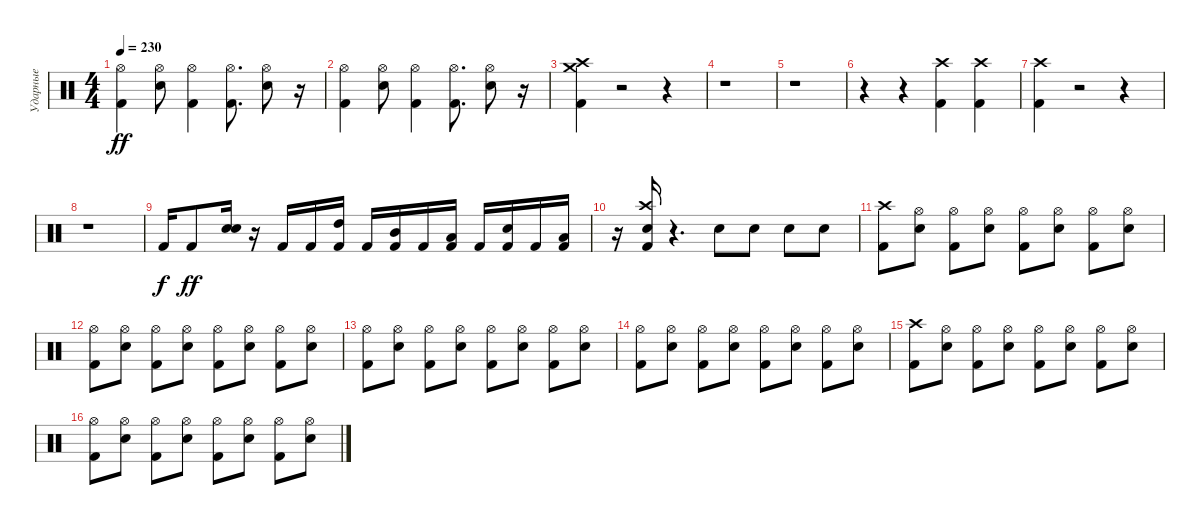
\track ("Ударные" "Ударные") {instrument percussion}
\staff {score}
\articulation defaults
\ts (4 4)
\tempo 230
\clef neutral
\ks c
("Kick (hit) 2" "Hi-Hat (open)").4{dy ff} ("Snare (hit) 2" "Hi-Hat (open)").8 ("Kick (hit) 2" "Hi-Hat (open)").4 ("Kick (hit) 2" "Hi-Hat (open)").8{d} ("Snare (hit) 2" "Hi-Hat (open)").8 r.16 |
("Kick (hit) 2" "Hi-Hat (open)").4 ("Snare (hit) 2" "Hi-Hat (open)").8 ("Kick (hit) 2" "Hi-Hat (open)").4 ("Kick (hit) 2" "Hi-Hat (open)").8{d} ("Snare (hit) 2" "Hi-Hat (open)").8 r.16 |
("Crash medium (hit)" "Crash high (hit)" "Kick (hit) 2").4 r.2 r.4 |
r.1 |
r.1 |
r.4 r.4 ("Crash high (hit)" "Kick (hit) 2").4 ("Crash high (hit)" "Kick (hit) 2").4 |
("Crash high (hit)" "Kick (hit) 2").4 r.2 r.4 |
r.1 |
"Kick (hit) 2".16{dy f} "Kick (hit) 2".8{dy ff} ("Electric Snare (hit)" "Snare (hit) 2").16 r.16 "Kick (hit) 2".16 "Kick (hit) 2".16 ("High Tom (hit)" "Kick (hit) 2").16 "Kick (hit) 2".16 ("Mid Tom (hit)" "Kick (hit) 2").16 "Kick (hit) 2".16 ("Low Tom (hit)" "Kick (hit) 2").16 "Kick (hit) 2".16 ("Electric Snare (hit)" "Kick (hit) 2").16 "Kick (hit) 2".16 ("Low Floor Tom (hit)" "Kick (hit) 2").16 |
r.16 ("Crash high (hit)" "Electric Snare (hit)" "Kick (hit) 2").16 r.4{d} "Electric Snare (hit)".8 "Electric Snare (hit)".8 "Electric Snare (hit)".8 "Electric Snare (hit)".8 |
("Crash high (hit)" "Kick (hit) 2").8 ("Hi-Hat (open)" "Snare (hit) 2").8 ("Hi-Hat (open)" "Kick (hit) 2").8 ("Hi-Hat (open)" "Snare (hit) 2").8 ("Hi-Hat (open)" "Kick (hit) 2").8 ("Hi-Hat (open)" "Snare (hit) 2").8 ("Hi-Hat (open)" "Kick (hit) 2").8 ("Hi-Hat (open)" "Snare (hit) 2").8 |
("Hi-Hat (open)" "Kick (hit) 2").8 ("Hi-Hat (open)" "Snare (hit) 2").8 ("Hi-Hat (open)" "Kick (hit) 2").8 ("Hi-Hat (open)" "Snare (hit) 2").8 ("Hi-Hat (open)" "Kick (hit) 2").8 ("Hi-Hat (open)" "Snare (hit) 2").8 ("Hi-Hat (open)" "Kick (hit) 2").8 ("Hi-Hat (open)" "Snare (hit) 2").8 |
("Hi-Hat (open)" "Kick (hit) 2").8 ("Hi-Hat (open)" "Snare (hit) 2").8 ("Hi-Hat (open)" "Kick (hit) 2").8 ("Hi-Hat (open)" "Snare (hit) 2").8 ("Hi-Hat (open)" "Kick (hit) 2").8 ("Hi-Hat (open)" "Snare (hit) 2").8 ("Hi-Hat (open)" "Kick (hit) 2").8 ("Hi-Hat (open)" "Snare (hit) 2").8 |
("Hi-Hat (open)" "Kick (hit) 2").8 ("Hi-Hat (open)" "Snare (hit) 2").8 ("Hi-Hat (open)" "Kick (hit) 2").8 ("Hi-Hat (open)" "Snare (hit) 2").8 ("Hi-Hat (open)" "Kick (hit) 2").8 ("Hi-Hat (open)" "Snare (hit) 2").8 ("Hi-Hat (open)" "Kick (hit) 2").8 ("Hi-Hat (open)" "Snare (hit) 2").8 |
("Crash high (hit)" "Kick (hit) 2").8 ("Hi-Hat (open)" "Snare (hit) 2").8 ("Hi-Hat (open)" "Kick (hit) 2").8 ("Hi-Hat (open)" "Snare (hit) 2").8 ("Hi-Hat (open)" "Kick (hit) 2").8 ("Hi-Hat (open)" "Snare (hit) 2").8 ("Hi-Hat (open)" "Kick (hit) 2").8 ("Hi-Hat (open)" "Snare (hit) 2").8 |
("Hi-Hat (open)" "Kick (hit) 2").8 ("Hi-Hat (open)" "Snare (hit) 2").8 ("Hi-Hat (open)" "Kick (hit) 2").8 ("Hi-Hat (open)" "Snare (hit) 2").8 ("Hi-Hat (open)" "Kick (hit) 2").8 ("Hi-Hat (open)" "Snare (hit) 2").8 ("Hi-Hat (open)" "Kick (hit) 2").8 ("Hi-Hat (open)" "Snare (hit) 2").8
